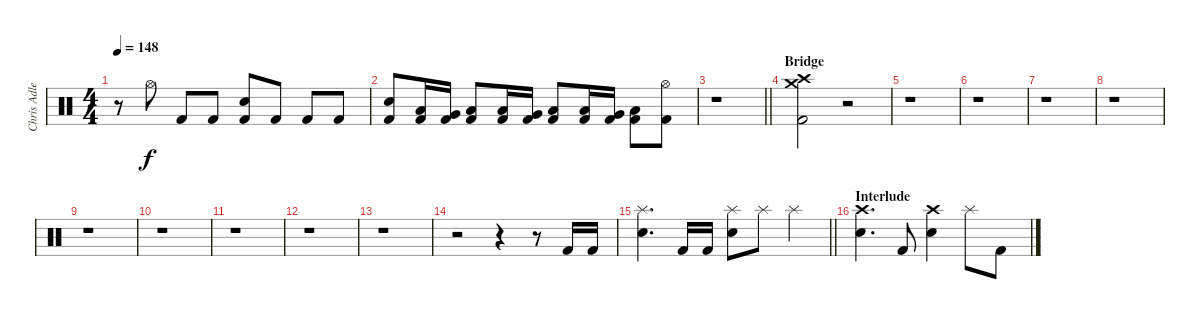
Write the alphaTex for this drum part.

\track ("Chris Adler (Drums)" "Chris Adle") {instrument percussion}
\staff {score}
\articulation defaults
\ts (4 4)
\tempo 148
\clef neutral
\ks c
r.8{dy f} "Hi-Hat (open)".8 "Kick (hit) 2".8 "Kick (hit) 2".8 ("Snare (hit) 2" "Kick (hit) 2").8 "Kick (hit) 2".8 "Kick (hit) 2".8 "Kick (hit) 2".8 |
("Snare (hit) 2" "Kick (hit) 2").8 ("Low Tom (hit)" "Kick (hit) 2").16 ("Very Low Tom (hit)" "Kick (hit) 2").16 ("Low Floor Tom (hit)" "Kick (hit) 2").8 ("Low Tom (hit)" "Kick (hit) 2").16 ("Very Low Tom (hit)" "Kick (hit) 2").16 ("Low Floor Tom (hit)" "Kick (hit) 2").8 ("Low Tom (hit)" "Kick (hit) 2").16 ("Very Low Tom (hit)" "Kick (hit) 2").16 ("Low Floor Tom (hit)" "Kick (hit) 2").8 ("Hi-Hat (open)" "Kick (hit) 2").8 |
\barLineRight lightlight
r.1 |
\section ("" "Bridge")
("Crash high (hit)" "Crash medium (hit)" "Kick (hit) 2").2 r.2 |
r.1 |
r.1 |
r.1 |
r.1 |
r.1 |
r.1 |
r.1 |
r.1 |
r.1 |
r.2 r.4 r.8 "Kick (hit) 2".16 "Kick (hit) 2".16 |
\barLineRight lightlight
("Splash (hit)" "Snare (hit) 2").4{d} "Kick (hit) 2".16 "Kick (hit) 2".16 ("Splash (hit)" "Snare (hit) 2").8 "Splash (hit)".8 "Splash (hit)".4 |
\section ("" "Interlude")
("Crash high (hit)" "Snare (hit) 2").4{d} "Kick (hit) 2".8 ("Crash high (hit)" "Snare (hit) 2").4 "Splash (hit)".8 "Kick (hit) 2".8
